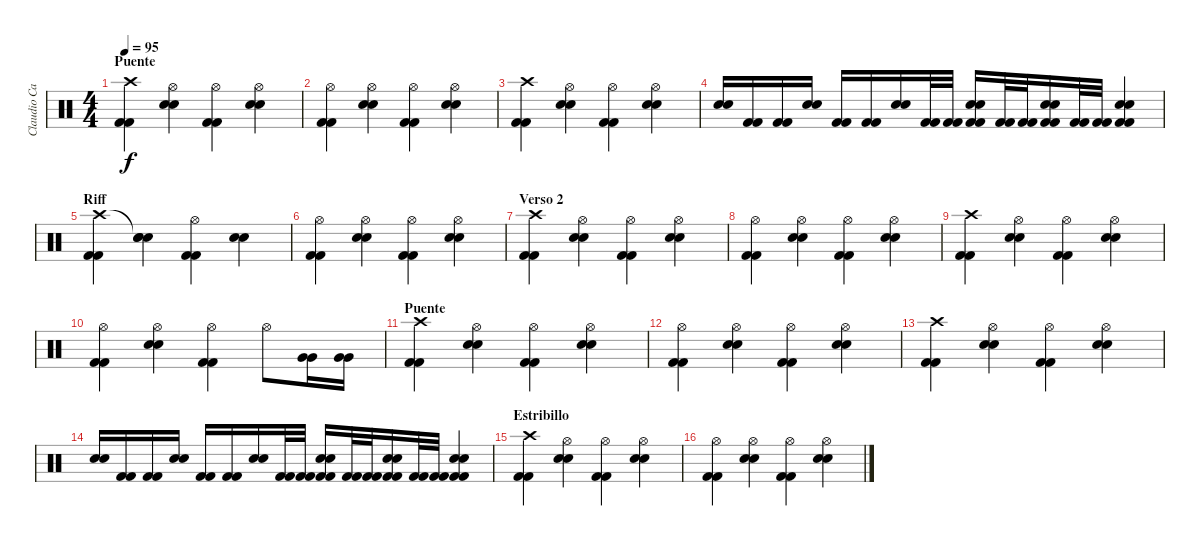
\track ("Claudio Cardaci (bateria)" "Claudio Ca") {instrument percussion}
\staff {score}
\articulation defaults
\ts (4 4)
\section ("" "Puente")
\tempo 95
\clef neutral
\ks c
("Crash high (hit)" "Kick (hit) 2" "Kick (hit) 2").4{dy f} ("Hi-Hat (open)" "Snare (hit) 2" "Snare (hit) 2").4 ("Hi-Hat (open)" "Kick (hit) 2" "Kick (hit) 2").4 ("Hi-Hat (open)" "Snare (hit) 2" "Snare (hit) 2").4 |
("Hi-Hat (open)" "Kick (hit) 2" "Kick (hit) 2").4 ("Hi-Hat (open)" "Snare (hit) 2" "Snare (hit) 2").4 ("Hi-Hat (open)" "Kick (hit) 2" "Kick (hit) 2").4 ("Hi-Hat (open)" "Snare (hit) 2" "Snare (hit) 2").4 |
("Crash high (hit)" "Kick (hit) 2" "Kick (hit) 2").4 ("Hi-Hat (open)" "Snare (hit) 2" "Snare (hit) 2").4 ("Hi-Hat (open)" "Kick (hit) 2" "Kick (hit) 2").4 ("Hi-Hat (open)" "Snare (hit) 2" "Snare (hit) 2").4 |
("Electric Snare (hit)" "Snare (hit) 2").16 ("Kick (hit) 2" "Kick (hit) 2").16 ("Kick (hit) 2" "Kick (hit) 2").16 ("Snare (hit) 2" "Snare (hit) 2").16 ("Kick (hit) 2" "Kick (hit) 2").16 ("Kick (hit) 2" "Kick (hit) 2").16 ("Snare (hit) 2" "Snare (hit) 2").16 ("Kick (hit) 2" "Kick (hit) 2").32 ("Kick (hit) 2" "Kick (hit) 2").32 ("Snare (hit) 2" "Snare (hit) 2" "Kick (hit) 2" "Kick (hit) 2").16 ("Kick (hit) 2" "Kick (hit) 2").32 ("Kick (hit) 2" "Kick (hit) 2").32 ("Snare (hit) 2" "Snare (hit) 2" "Kick (hit) 2" "Kick (hit) 2").16 ("Kick (hit) 2" "Kick (hit) 2").32 ("Kick (hit) 2" "Kick (hit) 2").32 ("Snare (hit) 2" "Snare (hit) 2" "Kick (hit) 2" "Kick (hit) 2").4 |
\section ("" "Riff")
("Crash high (hit)" "Kick (hit) 2" "Kick (hit) 2").4 ("Snare (hit)"{t} "Snare (hit) 2" "Snare (hit) 2").4 ("Hi-Hat (open)" "Kick (hit) 2" "Kick (hit) 2").4 ("Snare (hit) 2" "Snare (hit) 2").4 |
("Hi-Hat (open)" "Kick (hit) 2" "Kick (hit) 2").4 ("Hi-Hat (open)" "Snare (hit) 2" "Snare (hit) 2").4 ("Hi-Hat (open)" "Kick (hit) 2" "Kick (hit) 2").4 ("Hi-Hat (open)" "Snare (hit) 2" "Snare (hit) 2").4 |
\section ("" "Verso 2")
("Crash high (hit)" "Kick (hit) 2" "Kick (hit) 2").4 ("Hi-Hat (open)" "Snare (hit) 2" "Snare (hit) 2").4 ("Hi-Hat (open)" "Kick (hit) 2" "Kick (hit) 2").4 ("Hi-Hat (open)" "Snare (hit) 2" "Snare (hit) 2").4 |
("Hi-Hat (open)" "Kick (hit) 2" "Kick (hit) 2").4 ("Hi-Hat (open)" "Snare (hit) 2" "Snare (hit) 2").4 ("Hi-Hat (open)" "Kick (hit) 2" "Kick (hit) 2").4 ("Hi-Hat (open)" "Snare (hit) 2" "Snare (hit) 2").4 |
("Crash high (hit)" "Kick (hit) 2" "Kick (hit) 2").4 ("Hi-Hat (open)" "Snare (hit) 2" "Snare (hit) 2").4 ("Hi-Hat (open)" "Kick (hit) 2" "Kick (hit) 2").4 ("Hi-Hat (open)" "Snare (hit) 2" "Snare (hit) 2").4 |
("Hi-Hat (open)" "Kick (hit) 2" "Kick (hit) 2").4 ("Hi-Hat (open)" "Snare (hit) 2" "Snare (hit) 2").4 ("Hi-Hat (open)" "Kick (hit) 2" "Kick (hit) 2").4 "Hi-Hat (open)".8 ("Very Low Tom (hit)" "Very Low Tom (hit)").16 ("Very Low Tom (hit)" "Very Low Tom (hit)").16 |
\section ("" "Puente")
("Crash high (hit)" "Kick (hit) 2" "Kick (hit) 2").4 ("Hi-Hat (open)" "Snare (hit) 2" "Snare (hit) 2").4 ("Hi-Hat (open)" "Kick (hit) 2" "Kick (hit) 2").4 ("Hi-Hat (open)" "Snare (hit) 2" "Snare (hit) 2").4 |
("Hi-Hat (open)" "Kick (hit) 2" "Kick (hit) 2").4 ("Hi-Hat (open)" "Snare (hit) 2" "Snare (hit) 2").4 ("Hi-Hat (open)" "Kick (hit) 2" "Kick (hit) 2").4 ("Hi-Hat (open)" "Snare (hit) 2" "Snare (hit) 2").4 |
("Crash high (hit)" "Kick (hit) 2" "Kick (hit) 2").4 ("Hi-Hat (open)" "Snare (hit) 2" "Snare (hit) 2").4 ("Hi-Hat (open)" "Kick (hit) 2" "Kick (hit) 2").4 ("Hi-Hat (open)" "Snare (hit) 2" "Snare (hit) 2").4 |
("Electric Snare (hit)" "Snare (hit) 2").16 ("Kick (hit) 2" "Kick (hit) 2").16 ("Kick (hit) 2" "Kick (hit) 2").16 ("Snare (hit) 2" "Snare (hit) 2").16 ("Kick (hit) 2" "Kick (hit) 2").16 ("Kick (hit) 2" "Kick (hit) 2").16 ("Snare (hit) 2" "Snare (hit) 2").16 ("Kick (hit) 2" "Kick (hit) 2").32 ("Kick (hit) 2" "Kick (hit) 2").32 ("Snare (hit) 2" "Snare (hit) 2" "Kick (hit) 2" "Kick (hit) 2").16 ("Kick (hit) 2" "Kick (hit) 2").32 ("Kick (hit) 2" "Kick (hit) 2").32 ("Snare (hit) 2" "Snare (hit) 2" "Kick (hit) 2" "Kick (hit) 2").16 ("Kick (hit) 2" "Kick (hit) 2").32 ("Kick (hit) 2" "Kick (hit) 2").32 ("Snare (hit) 2" "Snare (hit) 2" "Kick (hit) 2" "Kick (hit) 2").4 |
\section ("" "Estribillo")
("Crash high (hit)" "Kick (hit) 2" "Kick (hit) 2").4 ("Hi-Hat (open)" "Snare (hit) 2" "Snare (hit) 2").4 ("Hi-Hat (open)" "Kick (hit) 2" "Kick (hit) 2").4 ("Hi-Hat (open)" "Snare (hit) 2" "Snare (hit) 2").4 |
("Hi-Hat (open)" "Kick (hit) 2" "Kick (hit) 2").4 ("Hi-Hat (open)" "Snare (hit) 2" "Snare (hit) 2").4 ("Hi-Hat (open)" "Kick (hit) 2" "Kick (hit) 2").4 ("Hi-Hat (open)" "Snare (hit) 2" "Snare (hit) 2").4
